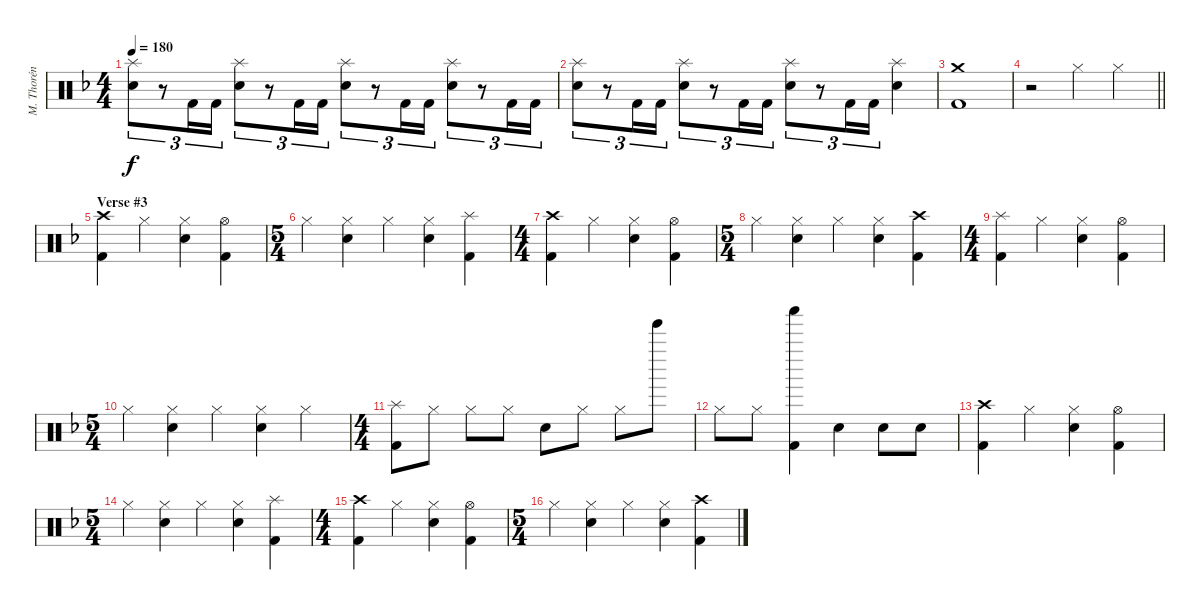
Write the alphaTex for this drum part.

\track ("M. Thorén (Drums)" "M. Thorén ") {instrument percussion}
\staff {score}
\articulation defaults
\ts (4 4)
\tempo 180
\clef neutral
\ks dminor
("Splash (hit)" "Electric Snare (hit)").8{tu (3 2) dy f} r.8{tu (3 2)} "Kick (hit) 2".16{tu (3 2)} "Kick (hit) 2".16{tu (3 2)} ("Splash (hit)" "Electric Snare (hit)").8{tu (3 2)} r.8{tu (3 2)} "Kick (hit) 2".16{tu (3 2)} "Kick (hit) 2".16{tu (3 2)} ("Splash (hit)" "Electric Snare (hit)").8{tu (3 2)} r.8{tu (3 2)} "Kick (hit) 2".16{tu (3 2)} "Kick (hit) 2".16{tu (3 2)} ("Splash (hit)" "Electric Snare (hit)").8{tu (3 2)} r.8{tu (3 2)} "Kick (hit) 2".16{tu (3 2)} "Kick (hit) 2".16{tu (3 2)} |
("Splash (hit)" "Electric Snare (hit)").8{tu (3 2)} r.8{tu (3 2)} "Kick (hit) 2".16{tu (3 2)} "Kick (hit) 2".16{tu (3 2)} ("Splash (hit)" "Electric Snare (hit)").8{tu (3 2)} r.8{tu (3 2)} "Kick (hit) 2".16{tu (3 2)} "Kick (hit) 2".16{tu (3 2)} ("Splash (hit)" "Electric Snare (hit)").8{tu (3 2)} r.8{tu (3 2)} "Kick (hit) 2".16{tu (3 2)} "Kick (hit) 2".16{tu (3 2)} ("Splash (hit)" "Electric Snare (hit)").4 |
("Crash medium (hit)" "Kick (hit) 2").1 |
\barLineRight lightlight
r.2 "Hi-Hat (closed)".4 "Hi-Hat (closed)".4 |
\section ("" "Verse #3")
("Crash high (hit)" "Kick (hit) 2").4 "Hi-Hat (closed)".4 ("Hi-Hat (closed)" "Electric Snare (hit)").4 ("Hi-Hat (open)" "Kick (hit) 2").4 |
\ts (5 4)
"Hi-Hat (closed)".4 ("Hi-Hat (closed)" "Electric Snare (hit)").4 "Hi-Hat (closed)".4 ("Hi-Hat (closed)" "Electric Snare (hit)").4 ("Splash (hit)" "Kick (hit) 2").4 |
\ts (4 4)
("Crash high (hit)" "Kick (hit) 2").4 "Hi-Hat (closed)".4 ("Hi-Hat (closed)" "Electric Snare (hit)").4 ("Hi-Hat (open)" "Kick (hit) 2").4 |
\ts (5 4)
"Hi-Hat (closed)".4 ("Hi-Hat (closed)" "Electric Snare (hit)").4 "Hi-Hat (closed)".4 ("Hi-Hat (closed)" "Electric Snare (hit)").4 ("Crash high (hit)" "Kick (hit) 2").4 |
\ts (4 4)
("Splash (hit)" "Kick (hit) 2").4 "Hi-Hat (closed)".4 ("Hi-Hat (closed)" "Electric Snare (hit)").4 ("Hi-Hat (open)" "Kick (hit) 2").4 |
\ts (5 4)
"Hi-Hat (closed)".4 ("Hi-Hat (closed)" "Electric Snare (hit)").4 "Hi-Hat (closed)".4 ("Hi-Hat (closed)" "Electric Snare (hit)").4 "Hi-Hat (closed)".4 |
\ts (4 4)
("Splash (hit)" "Kick (hit) 2").8 "Hi-Hat (closed)".8 "Hi-Hat (closed)".8 "Hi-Hat (closed)".8 "Electric Snare (hit)".8 "Hi-Hat (closed)".8 "Hi-Hat (closed)".8 "Tinkle Bell (hit)".8 |
"Hi-Hat (closed)".8 "Hi-Hat (closed)".8 ("Shaker (hit)" "Kick (hit) 2").4 "Electric Snare (hit)".4 "Electric Snare (hit)".8 "Electric Snare (hit)".8 |
("Crash high (hit)" "Kick (hit) 2").4 "Hi-Hat (closed)".4 ("Hi-Hat (closed)" "Electric Snare (hit)").4 ("Hi-Hat (open)" "Kick (hit) 2").4 |
\ts (5 4)
"Hi-Hat (closed)".4 ("Hi-Hat (closed)" "Electric Snare (hit)").4 "Hi-Hat (closed)".4 ("Hi-Hat (closed)" "Electric Snare (hit)").4 ("Splash (hit)" "Kick (hit) 2").4 |
\ts (4 4)
("Crash high (hit)" "Kick (hit) 2").4 "Hi-Hat (closed)".4 ("Hi-Hat (closed)" "Electric Snare (hit)").4 ("Hi-Hat (open)" "Kick (hit) 2").4 |
\ts (5 4)
"Hi-Hat (closed)".4 ("Hi-Hat (closed)" "Electric Snare (hit)").4 "Hi-Hat (closed)".4 ("Hi-Hat (closed)" "Electric Snare (hit)").4 ("Crash high (hit)" "Kick (hit) 2").4
